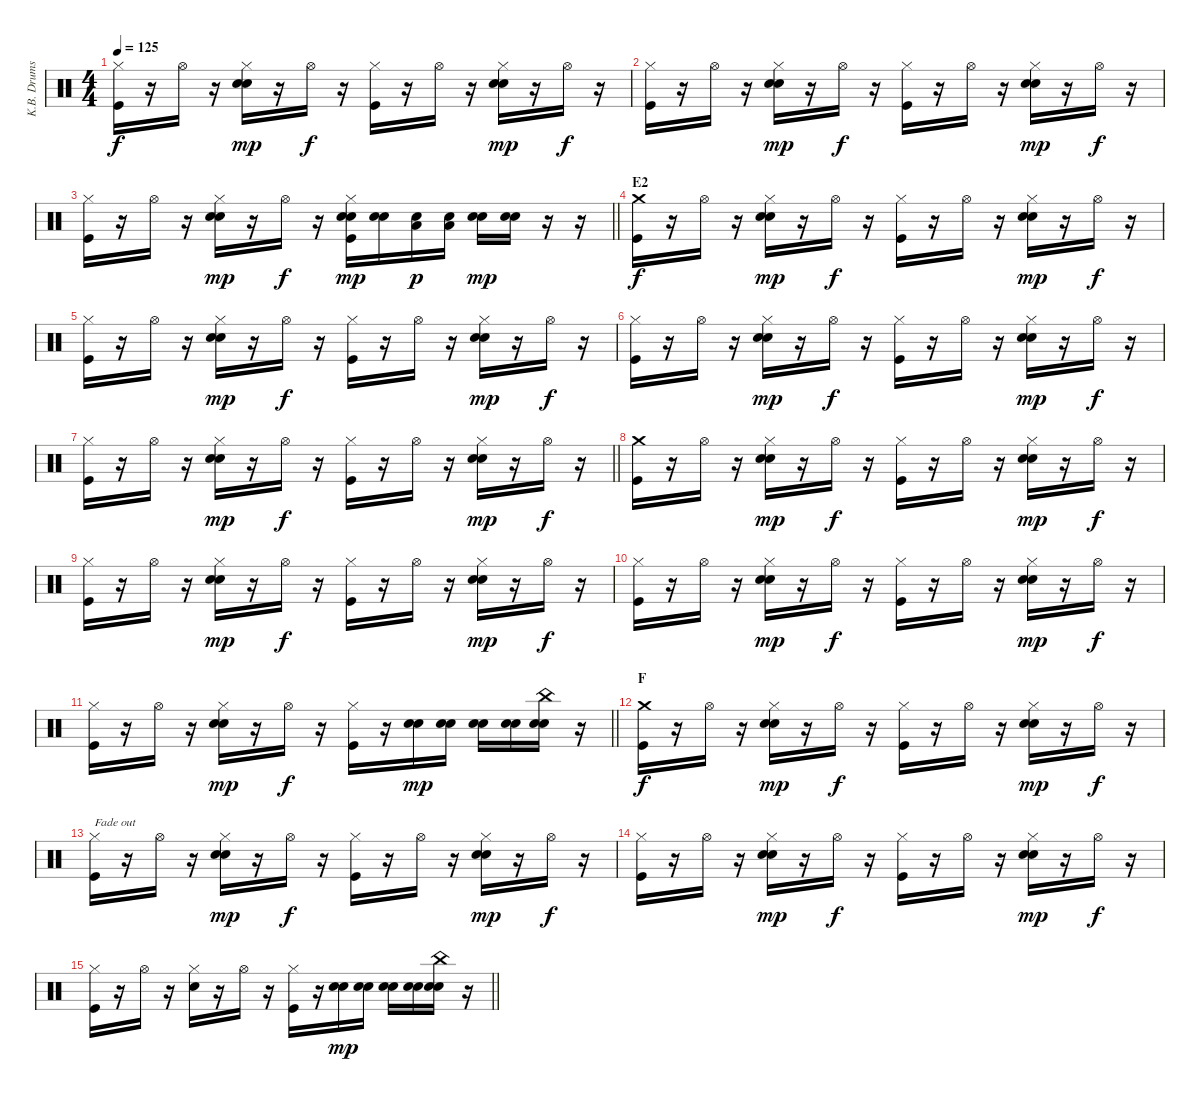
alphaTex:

\track ("K.B. Drums" "K.B. Drums") {instrument percussion}
\staff {score}
\articulation defaults
\ts (4 4)
\tempo 125
\clef neutral
\ks c
("Hi-Hat (closed)" "Kick (hit)").16{dy f} r.16 "Hi-Hat (open)".16 r.16 ("Hi-Hat (closed)" "Snare (hit) 2" "Electric Snare (hit)").16{dy mp} r.16 "Hi-Hat (open)".16{dy f} r.16 ("Hi-Hat (closed)" "Kick (hit)").16 r.16 "Hi-Hat (open)".16 r.16 ("Hi-Hat (closed)" "Snare (hit) 2" "Electric Snare (hit)").16{dy mp} r.16 "Hi-Hat (open)".16{dy f} r.16 |
("Hi-Hat (closed)" "Kick (hit)").16 r.16 "Hi-Hat (open)".16 r.16 ("Hi-Hat (closed)" "Snare (hit) 2" "Electric Snare (hit)").16{dy mp} r.16 "Hi-Hat (open)".16{dy f} r.16 ("Hi-Hat (closed)" "Kick (hit)").16 r.16 "Hi-Hat (open)".16 r.16 ("Hi-Hat (closed)" "Snare (hit) 2" "Electric Snare (hit)").16{dy mp} r.16 "Hi-Hat (open)".16{dy f} r.16 |
\barLineRight lightlight
("Hi-Hat (closed)" "Kick (hit)").16 r.16 "Hi-Hat (open)".16 r.16 ("Hi-Hat (closed)" "Snare (hit) 2" "Electric Snare (hit)").16{dy mp} r.16 "Hi-Hat (open)".16{dy f} r.16 ("Hi-Hat (closed)" "Snare (hit) 2" "Electric Snare (hit)" "Kick (hit)").16{dy mp} ("Snare (hit) 2" "Electric Snare (hit)").16 ("Low Tom (hit)" "Snare (hit) 2").16{dy p} ("Low Tom (hit)" "Snare (hit) 2").16 ("Snare (hit) 2" "Electric Snare (hit)").16{dy mp} ("Snare (hit) 2" "Electric Snare (hit)").16 r.16 r.16 |
\section ("" "E2")
("Crash medium (hit)" "Kick (hit)").16{dy f} r.16 "Hi-Hat (open)".16 r.16 ("Hi-Hat (closed)" "Snare (hit) 2" "Electric Snare (hit)").16{dy mp} r.16 "Hi-Hat (open)".16{dy f} r.16 ("Hi-Hat (closed)" "Kick (hit)").16 r.16 "Hi-Hat (open)".16 r.16 ("Hi-Hat (closed)" "Snare (hit) 2" "Electric Snare (hit)").16{dy mp} r.16 "Hi-Hat (open)".16{dy f} r.16 |
("Hi-Hat (closed)" "Kick (hit)").16 r.16 "Hi-Hat (open)".16 r.16 ("Hi-Hat (closed)" "Snare (hit) 2" "Electric Snare (hit)").16{dy mp} r.16 "Hi-Hat (open)".16{dy f} r.16 ("Hi-Hat (closed)" "Kick (hit)").16 r.16 "Hi-Hat (open)".16 r.16 ("Hi-Hat (closed)" "Snare (hit) 2" "Electric Snare (hit)").16{dy mp} r.16 "Hi-Hat (open)".16{dy f} r.16 |
("Hi-Hat (closed)" "Kick (hit)").16 r.16 "Hi-Hat (open)".16 r.16 ("Hi-Hat (closed)" "Snare (hit) 2" "Electric Snare (hit)").16{dy mp} r.16 "Hi-Hat (open)".16{dy f} r.16 ("Hi-Hat (closed)" "Kick (hit)").16 r.16 "Hi-Hat (open)".16 r.16 ("Hi-Hat (closed)" "Snare (hit) 2" "Electric Snare (hit)").16{dy mp} r.16 "Hi-Hat (open)".16{dy f} r.16 |
\barLineRight lightlight
("Hi-Hat (closed)" "Kick (hit)").16 r.16 "Hi-Hat (open)".16 r.16 ("Hi-Hat (closed)" "Snare (hit) 2" "Electric Snare (hit)").16{dy mp} r.16 "Hi-Hat (open)".16{dy f} r.16 ("Hi-Hat (closed)" "Kick (hit)").16 r.16 "Hi-Hat (open)".16 r.16 ("Hi-Hat (closed)" "Snare (hit) 2" "Electric Snare (hit)").16{dy mp} r.16 "Hi-Hat (open)".16{dy f} r.16 |
("Crash medium (hit)" "Kick (hit)").16 r.16 "Hi-Hat (open)".16 r.16 ("Hi-Hat (closed)" "Snare (hit) 2" "Electric Snare (hit)").16{dy mp} r.16 "Hi-Hat (open)".16{dy f} r.16 ("Hi-Hat (closed)" "Kick (hit)").16 r.16 "Hi-Hat (open)".16 r.16 ("Hi-Hat (closed)" "Snare (hit) 2" "Electric Snare (hit)").16{dy mp} r.16 "Hi-Hat (open)".16{dy f} r.16 |
("Hi-Hat (closed)" "Kick (hit)").16 r.16 "Hi-Hat (open)".16 r.16 ("Hi-Hat (closed)" "Snare (hit) 2" "Electric Snare (hit)").16{dy mp} r.16 "Hi-Hat (open)".16{dy f} r.16 ("Hi-Hat (closed)" "Kick (hit)").16 r.16 "Hi-Hat (open)".16 r.16 ("Hi-Hat (closed)" "Snare (hit) 2" "Electric Snare (hit)").16{dy mp} r.16 "Hi-Hat (open)".16{dy f} r.16 |
("Hi-Hat (closed)" "Kick (hit)").16 r.16 "Hi-Hat (open)".16 r.16 ("Hi-Hat (closed)" "Snare (hit) 2" "Electric Snare (hit)").16{dy mp} r.16 "Hi-Hat (open)".16{dy f} r.16 ("Hi-Hat (closed)" "Kick (hit)").16 r.16 "Hi-Hat (open)".16 r.16 ("Hi-Hat (closed)" "Snare (hit) 2" "Electric Snare (hit)").16{dy mp} r.16 "Hi-Hat (open)".16{dy f} r.16 |
\barLineRight lightlight
("Hi-Hat (closed)" "Kick (hit)").16 r.16 "Hi-Hat (open)".16 r.16 ("Hi-Hat (closed)" "Snare (hit) 2" "Electric Snare (hit)").16{dy mp} r.16 "Hi-Hat (open)".16{dy f} r.16 ("Hi-Hat (closed)" "Kick (hit)").16 r.16 ("Snare (hit) 2" "Electric Snare (hit)").16{dy mp} ("Snare (hit) 2" "Electric Snare (hit)").16 ("Snare (hit) 2" "Electric Snare (hit)").16 ("Snare (hit) 2" "Electric Snare (hit)").16 ("China (hit)" "Snare (hit) 2" "Electric Snare (hit)").16 r.16 |
\section ("" "F")
("Crash medium (hit)" "Kick (hit)").16{dy f} r.16 "Hi-Hat (open)".16 r.16 ("Hi-Hat (closed)" "Snare (hit) 2" "Electric Snare (hit)").16{dy mp} r.16 "Hi-Hat (open)".16{dy f} r.16 ("Hi-Hat (closed)" "Kick (hit)").16 r.16 "Hi-Hat (open)".16 r.16 ("Hi-Hat (closed)" "Snare (hit) 2" "Electric Snare (hit)").16{dy mp} r.16 "Hi-Hat (open)".16{dy f} r.16 |
("Hi-Hat (closed)" "Kick (hit)").16{txt "Fade out" volume 0} r.16 "Hi-Hat (open)".16 r.16 ("Hi-Hat (closed)" "Snare (hit) 2" "Electric Snare (hit)").16{dy mp} r.16 "Hi-Hat (open)".16{dy f} r.16 ("Hi-Hat (closed)" "Kick (hit)").16 r.16 "Hi-Hat (open)".16 r.16 ("Hi-Hat (closed)" "Snare (hit) 2" "Electric Snare (hit)").16{dy mp} r.16 "Hi-Hat (open)".16{dy f} r.16 |
("Hi-Hat (closed)" "Kick (hit)").16 r.16 "Hi-Hat (open)".16 r.16 ("Hi-Hat (closed)" "Snare (hit) 2" "Electric Snare (hit)").16{dy mp} r.16 "Hi-Hat (open)".16{dy f} r.16 ("Hi-Hat (closed)" "Kick (hit)").16 r.16 "Hi-Hat (open)".16 r.16 ("Hi-Hat (closed)" "Snare (hit) 2" "Electric Snare (hit)").16{dy mp} r.16 "Hi-Hat (open)".16{dy f} r.16 |
\barLineRight lightlight
("Hi-Hat (closed)" "Kick (hit)").16 r.16 "Hi-Hat (open)".16 r.16 ("Hi-Hat (closed)" "Snare (hit) 2").16 r.16 "Hi-Hat (open)".16 r.16 ("Hi-Hat (closed)" "Kick (hit)").16 r.16 ("Snare (hit) 2" "Electric Snare (hit)").16{dy mp} ("Snare (hit) 2" "Electric Snare (hit)").16 ("Snare (hit) 2" "Electric Snare (hit)").16 ("Snare (hit) 2" "Electric Snare (hit)").16 ("China (hit)" "Snare (hit) 2" "Electric Snare (hit)").16 r.16
